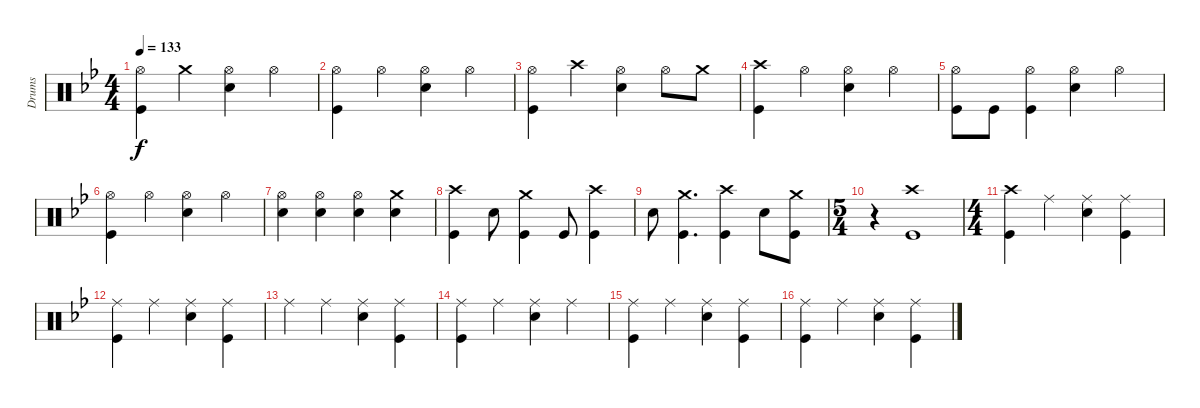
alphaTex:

\track ("Drums" "Drums") {instrument percussion}
\staff {score}
\articulation defaults
\ts (4 4)
\tempo 133
\clef neutral
\ks bb
("Hi-Hat (open)" "Kick (hit)").4{dy f} "Crash medium (hit)".4 ("Hi-Hat (open)" "Snare (hit) 2").4 "Hi-Hat (open)".4 |
("Hi-Hat (open)" "Kick (hit)").4 "Hi-Hat (open)".4 ("Hi-Hat (open)" "Snare (hit) 2").4 "Hi-Hat (open)".4 |
("Hi-Hat (open)" "Kick (hit)").4 "Crash high (hit)".4 ("Hi-Hat (open)" "Snare (hit) 2").4 "Hi-Hat (open)".8 "Crash medium (hit)".8 |
("Crash high (hit)" "Kick (hit)").4 "Hi-Hat (open)".4 ("Hi-Hat (open)" "Snare (hit) 2").4 "Hi-Hat (open)".4 |
("Hi-Hat (open)" "Kick (hit)").8 "Kick (hit)".8 ("Hi-Hat (open)" "Kick (hit)").4 ("Hi-Hat (open)" "Snare (hit) 2").4 "Hi-Hat (open)".4 |
("Hi-Hat (open)" "Kick (hit)").4 "Hi-Hat (open)".4 ("Hi-Hat (open)" "Snare (hit) 2").4 "Hi-Hat (open)".4 |
("Hi-Hat (open)" "Snare (hit) 2").4 ("Hi-Hat (open)" "Snare (hit) 2").4 ("Hi-Hat (open)" "Snare (hit) 2").4 ("Crash medium (hit)" "Snare (hit) 2").4 |
("Crash high (hit)" "Kick (hit)").4 "Snare (hit) 2".8 ("Crash medium (hit)" "Kick (hit)").4 "Kick (hit)".8 ("Crash high (hit)" "Kick (hit)").4 |
"Snare (hit) 2".8 ("Crash medium (hit)" "Kick (hit)").4{d} ("Crash high (hit)" "Kick (hit)").4 "Snare (hit) 2".8 ("Crash medium (hit)" "Kick (hit)").8 |
\ts (5 4)
r.4 ("Crash high (hit)" "Kick (hit)").1 |
\ts (4 4)
("Crash high (hit)" "Kick (hit)").4 "Ride (middle)".4 ("Ride (middle)" "Snare (hit) 2").4 ("Ride (middle)" "Kick (hit)").4 |
("Ride (middle)" "Kick (hit)").4 "Ride (middle)".4 ("Ride (middle)" "Snare (hit) 2").4 ("Ride (middle)" "Kick (hit)").4 |
"Ride (middle)".4 "Ride (middle)".4 ("Ride (middle)" "Snare (hit) 2").4 ("Ride (middle)" "Kick (hit)").4 |
("Ride (middle)" "Kick (hit)").4 "Ride (middle)".4 ("Ride (middle)" "Snare (hit) 2").4 "Ride (middle)".4 |
("Ride (middle)" "Kick (hit)").4 "Ride (middle)".4 ("Ride (middle)" "Snare (hit) 2").4 ("Ride (middle)" "Kick (hit)").4 |
("Ride (middle)" "Kick (hit)").4 "Ride (middle)".4 ("Ride (middle)" "Snare (hit) 2").4 ("Ride (middle)" "Kick (hit)").4
